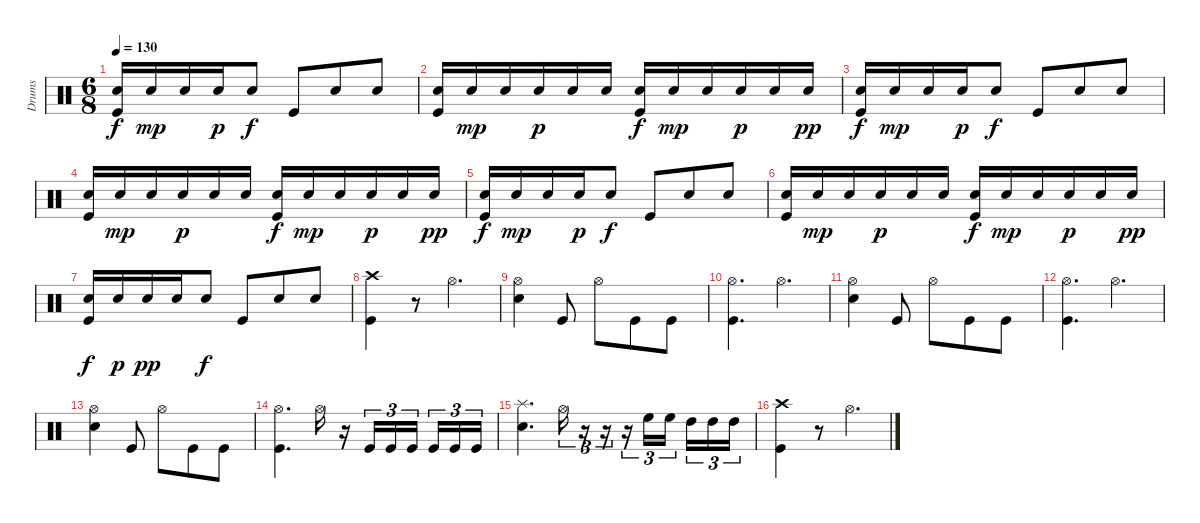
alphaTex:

\track ("Drums" "Drums") {instrument percussion}
\staff {score}
\articulation defaults
\ts (6 8)
\tempo 130
\clef neutral
\ks c
("Kick (hit)" "Snare (hit) 2").16{dy f} "Snare (hit) 2".16{dy mp} "Snare (hit) 2".16 "Snare (hit) 2".16{dy p} "Snare (hit) 2".8{dy f} "Kick (hit)".8 "Snare (hit) 2".8 "Snare (hit) 2".8 |
("Kick (hit)" "Snare (hit) 2").16 "Snare (hit) 2".16{dy mp} "Snare (hit) 2".16 "Snare (hit) 2".16{dy p} "Snare (hit) 2".16 "Snare (hit) 2".16 ("Kick (hit)" "Snare (hit) 2").16{dy f} "Snare (hit) 2".16{dy mp} "Snare (hit) 2".16 "Snare (hit) 2".16{dy p} "Snare (hit) 2".16 "Snare (hit) 2".16{dy pp} |
("Kick (hit)" "Snare (hit) 2").16{dy f} "Snare (hit) 2".16{dy mp} "Snare (hit) 2".16 "Snare (hit) 2".16{dy p} "Snare (hit) 2".8{dy f} "Kick (hit)".8 "Snare (hit) 2".8 "Snare (hit) 2".8 |
("Kick (hit)" "Snare (hit) 2").16 "Snare (hit) 2".16{dy mp} "Snare (hit) 2".16 "Snare (hit) 2".16{dy p} "Snare (hit) 2".16 "Snare (hit) 2".16 ("Kick (hit)" "Snare (hit) 2").16{dy f} "Snare (hit) 2".16{dy mp} "Snare (hit) 2".16 "Snare (hit) 2".16{dy p} "Snare (hit) 2".16 "Snare (hit) 2".16{dy pp} |
("Kick (hit)" "Snare (hit) 2").16{dy f} "Snare (hit) 2".16{dy mp} "Snare (hit) 2".16 "Snare (hit) 2".16{dy p} "Snare (hit) 2".8{dy f} "Kick (hit)".8 "Snare (hit) 2".8 "Snare (hit) 2".8 |
("Kick (hit)" "Snare (hit) 2").16 "Snare (hit) 2".16{dy mp} "Snare (hit) 2".16 "Snare (hit) 2".16{dy p} "Snare (hit) 2".16 "Snare (hit) 2".16 ("Kick (hit)" "Snare (hit) 2").16{dy f} "Snare (hit) 2".16{dy mp} "Snare (hit) 2".16 "Snare (hit) 2".16{dy p} "Snare (hit) 2".16 "Snare (hit) 2".16{dy pp} |
("Kick (hit)" "Snare (hit) 2").16{dy f} "Snare (hit) 2".16{dy p} "Snare (hit) 2".16{dy pp} "Snare (hit) 2".16 "Snare (hit) 2".8{dy f} "Kick (hit)".8 "Snare (hit) 2".8 "Snare (hit) 2".8 |
("Kick (hit)" "Crash high (hit)").4 r.8 "Hi-Hat (open)".4{d} |
("Snare (hit) 2" "Hi-Hat (open)").4 "Kick (hit)".8 "Hi-Hat (open)".8 "Kick (hit)".8 "Kick (hit)".8 |
("Kick (hit)" "Hi-Hat (open)").4{d} "Hi-Hat (open)".4{d} |
("Snare (hit) 2" "Hi-Hat (open)").4 "Kick (hit)".8 "Hi-Hat (open)".8 "Kick (hit)".8 "Kick (hit)".8 |
("Kick (hit)" "Hi-Hat (open)").4{d} "Hi-Hat (open)".4{d} |
("Snare (hit) 2" "Hi-Hat (open)").4 "Kick (hit)".8 "Hi-Hat (open)".8 "Kick (hit)".8 "Kick (hit)".8 |
("Kick (hit)" "Hi-Hat (open)").4{d} "Hi-Hat (open)".16 r.16 "Kick (hit)".16{tu (3 2)} "Kick (hit)".16{tu (3 2)} "Kick (hit)".16{tu (3 2) beam splitsecondary} "Kick (hit)".16{tu (3 2)} "Kick (hit)".16{tu (3 2)} "Kick (hit)".16{tu (3 2)} |
("Snare (hit) 2" "Splash (hit)").4{d} "Hi-Hat (open)".16{tu (3 2)} r.16{tu (3 2)} r.16{tu (3 2)} r.16{tu (3 2)} "High Floor Tom (hit)".16{tu (3 2)} "High Floor Tom (hit)".16{tu (3 2) beam splitsecondary} "High Tom (hit)".16{tu (3 2)} "High Tom (hit)".16{tu (3 2)} "High Tom (hit)".16{tu (3 2)} |
("Kick (hit)" "Crash high (hit)").4 r.8 "Hi-Hat (open)".4{d}
